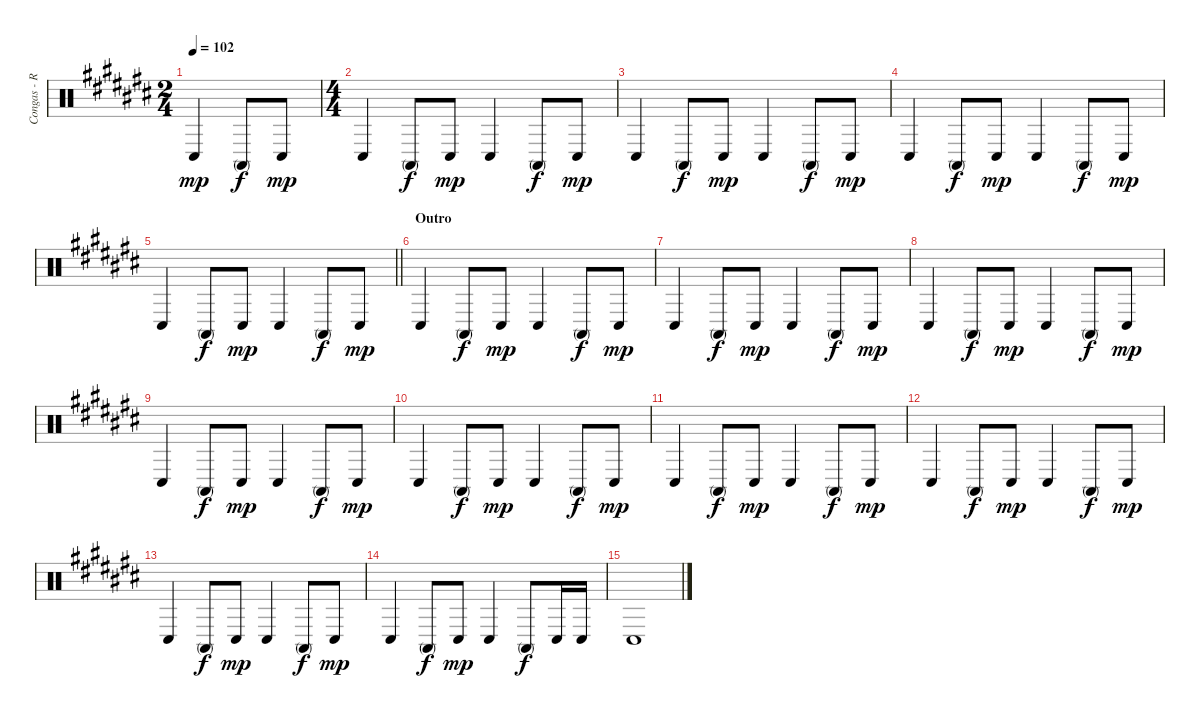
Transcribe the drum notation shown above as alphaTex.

\track ("Congas - Ross Kunkel" "Congas - R") {instrument percussion}
\staff {score}
\articulation defaults
\ts (2 4)
\tempo 102
\clef neutral
\ks c# "Conga low (hit)".4{dy mp} "Conga high (mute)".8{dy f} "Conga low (hit)".8{dy mp}
|
\ts (4 4)
"Conga low (hit)".4 "Conga high (mute)".8{dy f} "Conga low (hit)".8{dy mp} "Conga low (hit)".4 "Conga high (mute)".8{dy f} "Conga low (hit)".8{dy mp} |
"Conga low (hit)".4 "Conga high (mute)".8{dy f} "Conga low (hit)".8{dy mp} "Conga low (hit)".4 "Conga high (mute)".8{dy f} "Conga low (hit)".8{dy mp} |
"Conga low (hit)".4 "Conga high (mute)".8{dy f} "Conga low (hit)".8{dy mp} "Conga low (hit)".4 "Conga high (mute)".8{dy f} "Conga low (hit)".8{dy mp} |
\barLineRight lightlight "Conga low (hit)".4 "Conga high (mute)".8{dy f} "Conga low (hit)".8{dy mp} "Conga low (hit)".4 "Conga high (mute)".8{dy f} "Conga low (hit)".8{dy mp}
|
\section ("" "Outro")
"Conga low (hit)".4 "Conga high (mute)".8{dy f} "Conga low (hit)".8{dy mp} "Conga low (hit)".4 "Conga high (mute)".8{dy f} "Conga low (hit)".8{dy mp} |
"Conga low (hit)".4 "Conga high (mute)".8{dy f} "Conga low (hit)".8{dy mp} "Conga low (hit)".4 "Conga high (mute)".8{dy f} "Conga low (hit)".8{dy mp} |
"Conga low (hit)".4 "Conga high (mute)".8{dy f} "Conga low (hit)".8{dy mp} "Conga low (hit)".4 "Conga high (mute)".8{dy f} "Conga low (hit)".8{dy mp} |
"Conga low (hit)".4 "Conga high (mute)".8{dy f} "Conga low (hit)".8{dy mp} "Conga low (hit)".4 "Conga high (mute)".8{dy f} "Conga low (hit)".8{dy mp} |
"Conga low (hit)".4 "Conga high (mute)".8{dy f} "Conga low (hit)".8{dy mp} "Conga low (hit)".4 "Conga high (mute)".8{dy f} "Conga low (hit)".8{dy mp} |
"Conga low (hit)".4 "Conga high (mute)".8{dy f} "Conga low (hit)".8{dy mp} "Conga low (hit)".4 "Conga high (mute)".8{dy f} "Conga low (hit)".8{dy mp} |
"Conga low (hit)".4 "Conga high (mute)".8{dy f} "Conga low (hit)".8{dy mp} "Conga low (hit)".4 "Conga high (mute)".8{dy f} "Conga low (hit)".8{dy mp} |
"Conga low (hit)".4 "Conga high (mute)".8{dy f} "Conga low (hit)".8{dy mp} "Conga low (hit)".4 "Conga high (mute)".8{dy f} "Conga low (hit)".8{dy mp} |
"Conga low (hit)".4 "Conga high (mute)".8{dy f} "Conga low (hit)".8{dy mp} "Conga low (hit)".4 "Conga high (mute)".8{dy f} "Conga low (hit)".16 "Conga low (hit)".16 |
"Conga low (hit)".1
